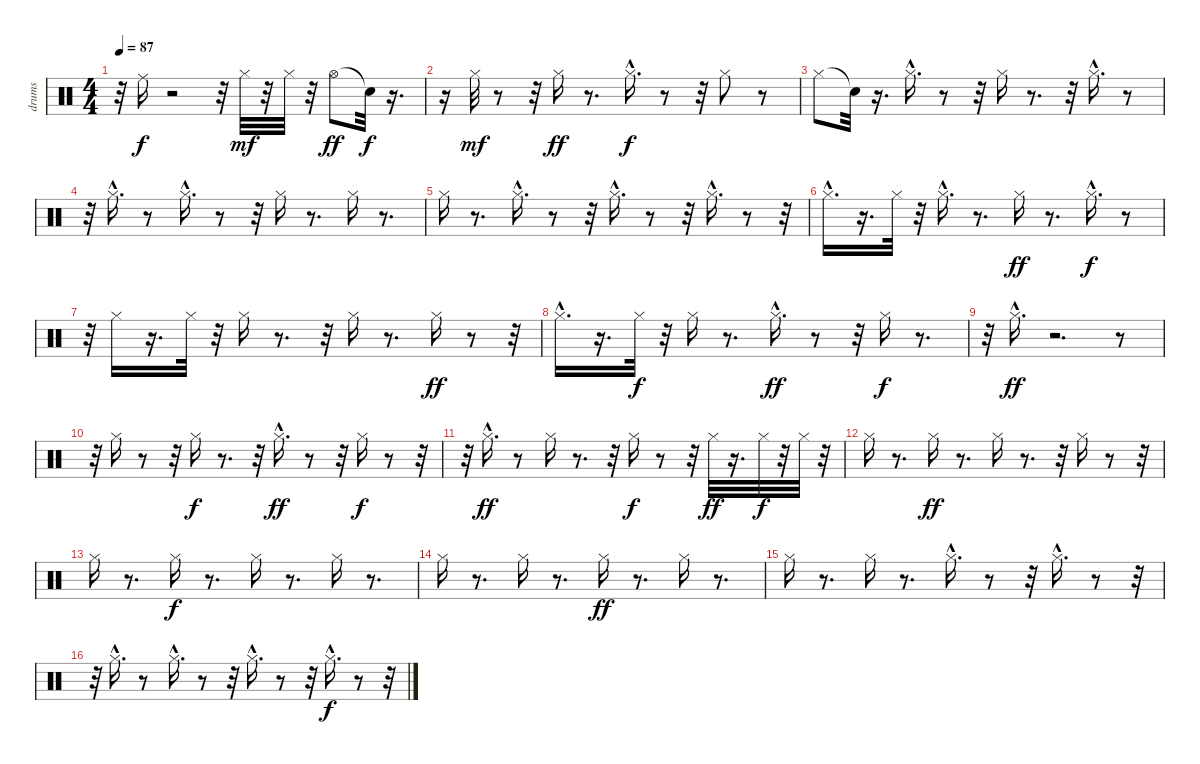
\track ("drums" "drums") {instrument percussion}
\staff {score}
\articulation defaults
\ts (4 4)
\tempo 87
\clef neutral
\ks c
r.32{dy ff} "Ride (middle)".16{dy f} r.2 r.32 "Hi-Hat (closed)".32{dy mf} r.32 "Hi-Hat (closed)".32 r.32 "Hi-Hat (open)".8{dy ff} "Snare (hit)"{t}.32{dy f} r.16{d} |
r.16 "Hi-Hat (closed)".32{dy mf} r.8 r.32 "Hi-Hat (closed)".16{dy ff} r.8{d} "Hi-Hat (closed)"{hac}.16{d dy f} r.8 r.32 "Hi-Hat (closed)".8 r.8 |
"Hi-Hat (closed)".8 "Snare (hit)"{t}.32 r.16{d} "Hi-Hat (closed)"{hac}.16{d} r.8 r.32 "Hi-Hat (closed)".16 r.8{d} r.32 "Hi-Hat (closed)"{hac}.16{d} r.8 |
r.32 "Hi-Hat (closed)"{hac}.16{d} r.8 "Hi-Hat (closed)"{hac}.16{d} r.8 r.32 "Hi-Hat (closed)".16 r.8{d} "Hi-Hat (closed)".16 r.8{d} |
"Hi-Hat (closed)".16 r.8{d} "Hi-Hat (closed)"{hac}.16{d} r.8 r.32 "Hi-Hat (closed)"{hac}.16{d} r.8 r.32 "Hi-Hat (closed)"{hac}.16{d} r.8 r.32 |
"Hi-Hat (closed)"{hac}.16{d} r.16{d} "Hi-Hat (closed)".32 r.32 "Hi-Hat (closed)"{hac}.16{d} r.8{d} "Hi-Hat (closed)".16{dy ff} r.8{d} "Hi-Hat (closed)"{hac}.16{d dy f} r.8 |
r.32 "Hi-Hat (closed)".16 r.16{d} "Hi-Hat (closed)".32 r.32 "Hi-Hat (closed)".16 r.8{d} r.32 "Hi-Hat (closed)".16 r.8{d} "Hi-Hat (closed)".16{dy ff} r.8 r.32 |
"Hi-Hat (closed)"{hac}.16{d} r.16{d} "Hi-Hat (closed)".32{dy f} r.32 "Hi-Hat (closed)".16 r.8{d} "Hi-Hat (closed)"{hac}.16{d dy ff} r.8 r.32 "Hi-Hat (closed)".16{dy f} r.8{d} |
r.32 "Hi-Hat (closed)"{hac}.16{d dy ff} r.2{d} r.8 |
r.32 "Hi-Hat (closed)".16 r.8 r.32 "Hi-Hat (closed)".16{dy f} r.8{d} r.32 "Hi-Hat (closed)"{hac}.16{d dy ff} r.8 r.32 "Hi-Hat (closed)".16{dy f} r.8 r.32 |
r.32 "Hi-Hat (closed)"{hac}.16{d dy ff} r.8 "Hi-Hat (closed)".16 r.8{d} r.32 "Hi-Hat (closed)".16{dy f} r.8 r.32 "Hi-Hat (closed)".32{dy ff} r.16{d} "Hi-Hat (closed)".32{dy f} r.32 "Hi-Hat (closed)".32 r.32 |
"Hi-Hat (closed)".16 r.8{d} "Hi-Hat (closed)".16{dy ff} r.8{d} "Hi-Hat (closed)".16 r.8{d} r.32 "Hi-Hat (closed)".16 r.8 r.32 |
"Hi-Hat (closed)".16 r.8{d} "Hi-Hat (closed)".16{dy f} r.8{d} "Hi-Hat (closed)".16 r.8{d} "Hi-Hat (closed)".16 r.8{d} |
"Hi-Hat (closed)".16 r.8{d} "Hi-Hat (closed)".16 r.8{d} "Hi-Hat (closed)".16{dy ff} r.8{d} "Hi-Hat (closed)".16 r.8{d} |
"Hi-Hat (closed)".16 r.8{d} "Hi-Hat (closed)".16 r.8{d} "Hi-Hat (closed)"{hac}.16{d} r.8 r.32 "Hi-Hat (closed)"{hac}.16{d} r.8 r.32 |
r.32 "Hi-Hat (closed)"{hac}.16{d} r.8 "Hi-Hat (closed)"{hac}.16{d} r.8 r.32 "Hi-Hat (closed)"{hac}.16{d} r.8 r.32 "Hi-Hat (closed)"{hac}.16{d dy f} r.8 r.32
